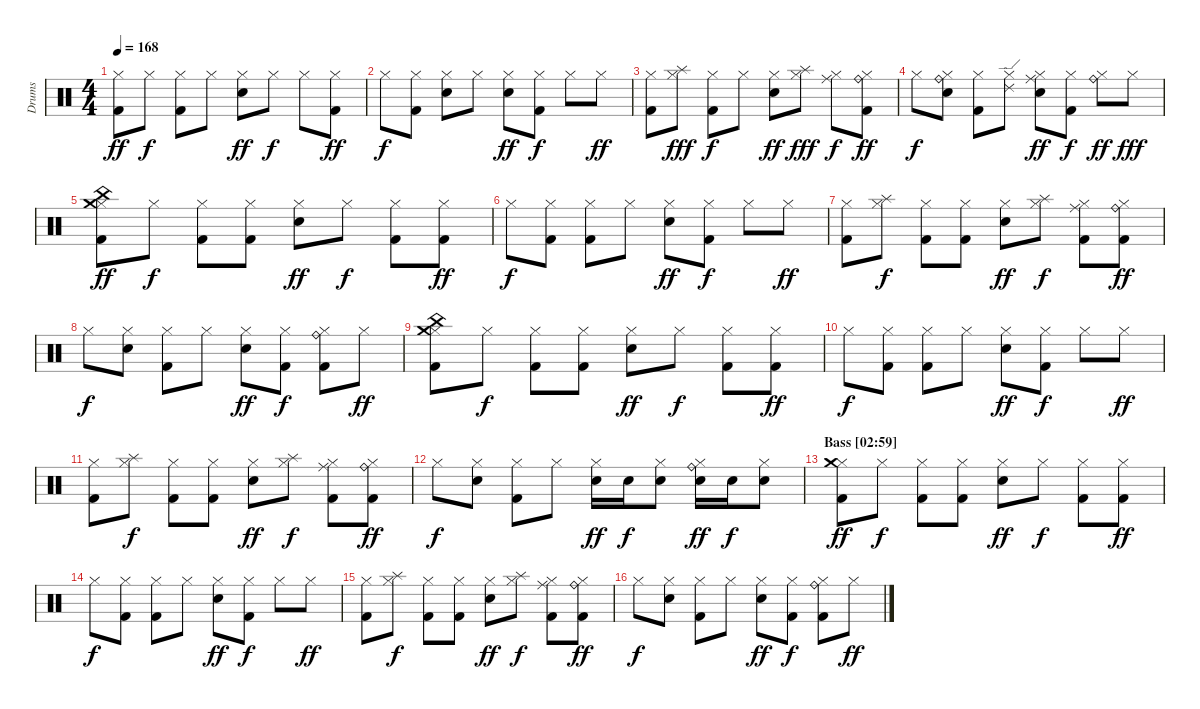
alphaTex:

\track ("Drums" "Drums") {instrument percussion}
\staff {score}
\articulation defaults
\ts (4 4)
\tempo 168
\clef neutral
\ks c
("Hi-Hat (closed)" "Kick (hit) 2").8{dy ff} "Hi-Hat (closed)".8{dy f} ("Hi-Hat (closed)" "Kick (hit) 2").8 "Hi-Hat (closed)".8 ("Hi-Hat (closed)" "Electric Snare (hit)").8{dy ff} "Hi-Hat (closed)".8{dy f} "Hi-Hat (closed)".8 ("Hi-Hat (closed)" "Kick (hit) 2").8{dy ff} |
"Hi-Hat (closed)".8{dy f} ("Hi-Hat (closed)" "Kick (hit) 2").8 ("Hi-Hat (closed)" "Electric Snare (hit)").8 "Hi-Hat (closed)".8 ("Hi-Hat (closed)" "Electric Snare (hit)").8{dy ff} ("Hi-Hat (closed)" "Kick (hit) 2").8{dy f} "Hi-Hat (closed)".8 "Hi-Hat (closed)".8{dy ff} |
("Hi-Hat (closed)" "Kick (hit) 2").8 ("Hi-Hat (closed)" "Splash (hit)").8{dy fff} ("Hi-Hat (closed)" "Kick (hit) 2").8{dy f} "Hi-Hat (closed)".8 ("Hi-Hat (closed)" "Electric Snare (hit)").8{dy ff} ("Hi-Hat (closed)" "Splash (hit)").8{dy fff} ("Hi-Hat (closed)" "Ride (middle)").8{dy f} ("Hi-Hat (closed)" "Ride (bell)" "Kick (hit) 2").8{dy ff} |
"Hi-Hat (closed)".8{dy f} ("Hi-Hat (closed)" "Ride (bell)" "Electric Snare (hit)").8 ("Hi-Hat (closed)" "Kick (hit) 2").8 ("Hi-Hat (closed)" "Ride (edge) 2").8 ("Hi-Hat (closed)" "Ride (middle)" "Electric Snare (hit)").8{dy ff} ("Hi-Hat (closed)" "Kick (hit) 2").8{dy f} ("Hi-Hat (closed)" "Ride (bell)").8{dy ff} "Hi-Hat (closed)".8{dy fff} |
\section ("" "")
("Hi-Hat (closed)" "China (hit)" "Crash medium (hit)" "Kick (hit) 2").8{dy ff} "Hi-Hat (closed)".8{dy f} ("Hi-Hat (closed)" "Kick (hit) 2").8 ("Hi-Hat (closed)" "Kick (hit) 2").8 ("Hi-Hat (closed)" "Electric Snare (hit)").8{dy ff} "Hi-Hat (closed)".8{dy f} ("Hi-Hat (closed)" "Kick (hit) 2").8 ("Hi-Hat (closed)" "Kick (hit) 2").8{dy ff} |
"Hi-Hat (closed)".8{dy f} ("Hi-Hat (closed)" "Kick (hit) 2").8 ("Hi-Hat (closed)" "Kick (hit) 2").8 "Hi-Hat (closed)".8 ("Hi-Hat (closed)" "Electric Snare (hit)").8{dy ff} ("Hi-Hat (closed)" "Kick (hit) 2").8{dy f} "Hi-Hat (closed)".8 "Hi-Hat (closed)".8{dy ff} |
("Hi-Hat (closed)" "Kick (hit) 2").8 ("Hi-Hat (closed)" "Splash (hit)").8{dy f} ("Hi-Hat (closed)" "Kick (hit) 2").8 ("Hi-Hat (closed)" "Kick (hit) 2").8 ("Hi-Hat (closed)" "Electric Snare (hit)").8{dy ff} ("Hi-Hat (closed)" "Splash (hit)").8{dy f} ("Hi-Hat (closed)" "Ride (middle)" "Kick (hit) 2").8 ("Hi-Hat (closed)" "Ride (bell)" "Kick (hit) 2").8{dy ff} |
"Hi-Hat (closed)".8{dy f} ("Hi-Hat (closed)" "Electric Snare (hit)").8 ("Hi-Hat (closed)" "Kick (hit) 2").8 "Hi-Hat (closed)".8 ("Hi-Hat (closed)" "Electric Snare (hit)").8{dy ff} ("Hi-Hat (closed)" "Kick (hit) 2").8{dy f} ("Hi-Hat (closed)" "Ride (bell)" "Kick (hit) 2").8 "Hi-Hat (closed)".8{dy ff} |
("Hi-Hat (closed)" "China (hit)" "Crash medium (hit)" "Kick (hit) 2").8 "Hi-Hat (closed)".8{dy f} ("Hi-Hat (closed)" "Kick (hit) 2").8 ("Hi-Hat (closed)" "Kick (hit) 2").8 ("Hi-Hat (closed)" "Electric Snare (hit)").8{dy ff} "Hi-Hat (closed)".8{dy f} ("Hi-Hat (closed)" "Kick (hit) 2").8 ("Hi-Hat (closed)" "Kick (hit) 2").8{dy ff} |
"Hi-Hat (closed)".8{dy f} ("Hi-Hat (closed)" "Kick (hit) 2").8 ("Hi-Hat (closed)" "Kick (hit) 2").8 "Hi-Hat (closed)".8 ("Hi-Hat (closed)" "Electric Snare (hit)").8{dy ff} ("Hi-Hat (closed)" "Kick (hit) 2").8{dy f} "Hi-Hat (closed)".8 "Hi-Hat (closed)".8{dy ff} |
("Hi-Hat (closed)" "Kick (hit) 2").8 ("Hi-Hat (closed)" "Splash (hit)").8{dy f} ("Hi-Hat (closed)" "Kick (hit) 2").8 ("Hi-Hat (closed)" "Kick (hit) 2").8 ("Hi-Hat (closed)" "Electric Snare (hit)").8{dy ff} ("Hi-Hat (closed)" "Splash (hit)").8{dy f} ("Hi-Hat (closed)" "Ride (middle)" "Kick (hit) 2").8 ("Hi-Hat (closed)" "Ride (bell)" "Kick (hit) 2").8{dy ff} |
"Hi-Hat (closed)".8{dy f} ("Hi-Hat (closed)" "Electric Snare (hit)").8 ("Hi-Hat (closed)" "Kick (hit) 2").8 "Hi-Hat (closed)".8 ("Hi-Hat (closed)" "Electric Snare (hit)").16{dy ff} "Electric Snare (hit)".16{dy f} ("Hi-Hat (closed)" "Electric Snare (hit)").8 ("Hi-Hat (closed)" "Ride (bell)" "Electric Snare (hit)").16{dy ff} "Electric Snare (hit)".16{dy f} ("Hi-Hat (closed)" "Electric Snare (hit)").8 |
\section ("" "Bass [02:59]")
("Hi-Hat (closed)" "Crash medium (hit)" "Kick (hit) 2").8{dy ff} "Hi-Hat (closed)".8{dy f} ("Hi-Hat (closed)" "Kick (hit) 2").8 ("Hi-Hat (closed)" "Kick (hit) 2").8 ("Hi-Hat (closed)" "Electric Snare (hit)").8{dy ff} "Hi-Hat (closed)".8{dy f} ("Hi-Hat (closed)" "Kick (hit) 2").8 ("Hi-Hat (closed)" "Kick (hit) 2").8{dy ff} |
"Hi-Hat (closed)".8{dy f} ("Hi-Hat (closed)" "Kick (hit) 2").8 ("Hi-Hat (closed)" "Kick (hit) 2").8 "Hi-Hat (closed)".8 ("Hi-Hat (closed)" "Electric Snare (hit)").8{dy ff} ("Hi-Hat (closed)" "Kick (hit) 2").8{dy f} "Hi-Hat (closed)".8 "Hi-Hat (closed)".8{dy ff} |
("Hi-Hat (closed)" "Kick (hit) 2").8 ("Hi-Hat (closed)" "Splash (hit)").8{dy f} ("Hi-Hat (closed)" "Kick (hit) 2").8 ("Hi-Hat (closed)" "Kick (hit) 2").8 ("Hi-Hat (closed)" "Electric Snare (hit)").8{dy ff} ("Hi-Hat (closed)" "Splash (hit)").8{dy f} ("Hi-Hat (closed)" "Ride (middle)" "Kick (hit) 2").8 ("Hi-Hat (closed)" "Ride (bell)" "Kick (hit) 2").8{dy ff} |
"Hi-Hat (closed)".8{dy f} ("Hi-Hat (closed)" "Electric Snare (hit)").8 ("Hi-Hat (closed)" "Kick (hit) 2").8 "Hi-Hat (closed)".8 ("Hi-Hat (closed)" "Electric Snare (hit)").8{dy ff} ("Hi-Hat (closed)" "Kick (hit) 2").8{dy f} ("Hi-Hat (closed)" "Ride (bell)" "Kick (hit) 2").8 "Hi-Hat (closed)".8{dy ff}
